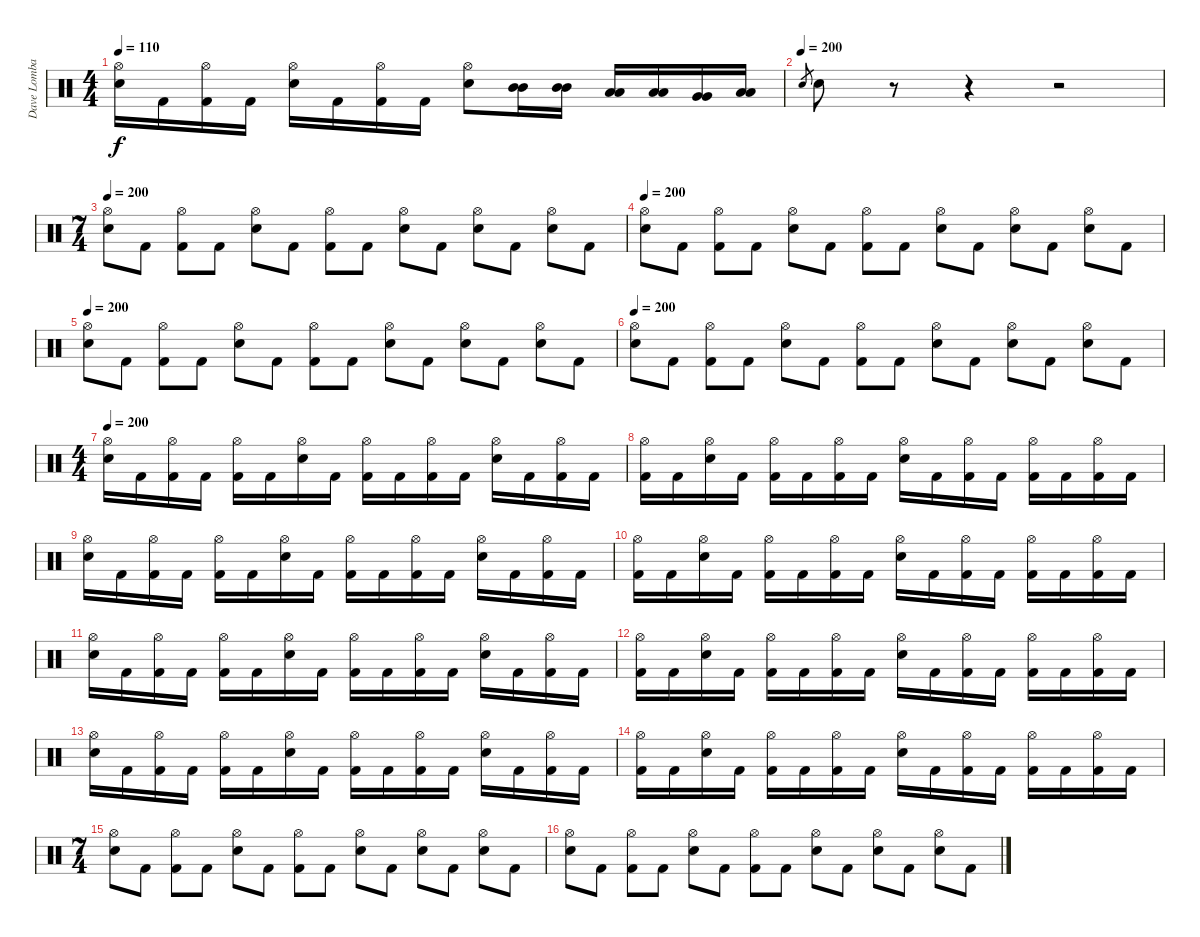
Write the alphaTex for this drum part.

\track ("Dave Lombardo:" "Dave Lomba") {instrument percussion}
\staff {score}
\articulation defaults
\ts (4 4)
\tempo 110
\clef neutral
\ks c
("Hi-Hat (open)" "Electric Snare (hit)").16{dy f} "Kick (hit) 2".16 ("Hi-Hat (open)" "Kick (hit) 2").16 "Kick (hit) 2".16 ("Hi-Hat (open)" "Electric Snare (hit)").16 "Kick (hit) 2".16 ("Hi-Hat (open)" "Kick (hit) 2").16 "Kick (hit) 2".16 ("Hi-Hat (open)" "Electric Snare (hit)").8 ("Mid Tom (hit)" "Mid Tom (hit)").16 ("Mid Tom (hit)" "Mid Tom (hit)").16 ("Low Tom (hit)" "Low Tom (hit)").16 ("Low Tom (hit)" "Low Tom (hit)").16 ("Very Low Tom (hit)" "Very Low Tom (hit)").16 ("Low Floor Tom (hit)" "Low Floor Tom (hit)").16 |
\tempo (200)
"Electric Snare (hit)".8{gr} "Electric Snare (hit)".8 r.8 r.4 r.2 |
\ts (7 4)
\tempo 200
("Hi-Hat (open)" "Electric Snare (hit)").8 "Kick (hit) 2".8 ("Hi-Hat (open)" "Kick (hit) 2").8 "Kick (hit) 2".8 ("Hi-Hat (open)" "Electric Snare (hit)").8 "Kick (hit) 2".8 ("Hi-Hat (open)" "Kick (hit) 2").8 "Kick (hit) 2".8 ("Hi-Hat (open)" "Electric Snare (hit)").8 "Kick (hit) 2".8 ("Hi-Hat (open)" "Electric Snare (hit)").8 "Kick (hit) 2".8 ("Hi-Hat (open)" "Electric Snare (hit)").8 "Kick (hit) 2".8 |
\tempo 200
("Hi-Hat (open)" "Electric Snare (hit)").8 "Kick (hit) 2".8 ("Hi-Hat (open)" "Kick (hit) 2").8 "Kick (hit) 2".8 ("Hi-Hat (open)" "Electric Snare (hit)").8 "Kick (hit) 2".8 ("Hi-Hat (open)" "Kick (hit) 2").8 "Kick (hit) 2".8 ("Hi-Hat (open)" "Electric Snare (hit)").8 "Kick (hit) 2".8 ("Hi-Hat (open)" "Electric Snare (hit)").8 "Kick (hit) 2".8 ("Hi-Hat (open)" "Electric Snare (hit)").8 "Kick (hit) 2".8 |
\tempo 200
("Hi-Hat (open)" "Electric Snare (hit)").8 "Kick (hit) 2".8 ("Hi-Hat (open)" "Kick (hit) 2").8 "Kick (hit) 2".8 ("Hi-Hat (open)" "Electric Snare (hit)").8 "Kick (hit) 2".8 ("Hi-Hat (open)" "Kick (hit) 2").8 "Kick (hit) 2".8 ("Hi-Hat (open)" "Electric Snare (hit)").8 "Kick (hit) 2".8 ("Hi-Hat (open)" "Electric Snare (hit)").8 "Kick (hit) 2".8 ("Hi-Hat (open)" "Electric Snare (hit)").8 "Kick (hit) 2".8 |
\tempo 200
("Hi-Hat (open)" "Electric Snare (hit)").8 "Kick (hit) 2".8 ("Hi-Hat (open)" "Kick (hit) 2").8 "Kick (hit) 2".8 ("Hi-Hat (open)" "Electric Snare (hit)").8 "Kick (hit) 2".8 ("Hi-Hat (open)" "Kick (hit) 2").8 "Kick (hit) 2".8 ("Hi-Hat (open)" "Electric Snare (hit)").8 "Kick (hit) 2".8 ("Hi-Hat (open)" "Electric Snare (hit)").8 "Kick (hit) 2".8 ("Hi-Hat (open)" "Electric Snare (hit)").8 "Kick (hit) 2".8 |
\ts (4 4)
\tempo 200
("Hi-Hat (open)" "Electric Snare (hit)").16 "Kick (hit) 2".16 ("Hi-Hat (open)" "Kick (hit) 2").16 "Kick (hit) 2".16 ("Hi-Hat (open)" "Kick (hit) 2").16 "Kick (hit) 2".16 ("Hi-Hat (open)" "Electric Snare (hit)").16 "Kick (hit) 2".16 ("Hi-Hat (open)" "Kick (hit) 2").16 "Kick (hit) 2".16 ("Hi-Hat (open)" "Kick (hit) 2").16 "Kick (hit) 2".16 ("Hi-Hat (open)" "Electric Snare (hit)").16 "Kick (hit) 2".16 ("Hi-Hat (open)" "Kick (hit) 2").16 "Kick (hit) 2".16 |
("Hi-Hat (open)" "Kick (hit) 2").16 "Kick (hit) 2".16 ("Hi-Hat (open)" "Electric Snare (hit)").16 "Kick (hit) 2".16 ("Hi-Hat (open)" "Kick (hit) 2").16 "Kick (hit) 2".16 ("Hi-Hat (open)" "Kick (hit) 2").16 "Kick (hit) 2".16 ("Hi-Hat (open)" "Electric Snare (hit)").16 "Kick (hit) 2".16 ("Hi-Hat (open)" "Kick (hit) 2").16 "Kick (hit) 2".16 ("Hi-Hat (open)" "Kick (hit) 2").16 "Kick (hit) 2".16 ("Hi-Hat (open)" "Kick (hit) 2").16 "Kick (hit) 2".16 |
("Hi-Hat (open)" "Electric Snare (hit)").16 "Kick (hit) 2".16 ("Hi-Hat (open)" "Kick (hit) 2").16 "Kick (hit) 2".16 ("Hi-Hat (open)" "Kick (hit) 2").16 "Kick (hit) 2".16 ("Hi-Hat (open)" "Electric Snare (hit)").16 "Kick (hit) 2".16 ("Hi-Hat (open)" "Kick (hit) 2").16 "Kick (hit) 2".16 ("Hi-Hat (open)" "Kick (hit) 2").16 "Kick (hit) 2".16 ("Hi-Hat (open)" "Electric Snare (hit)").16 "Kick (hit) 2".16 ("Hi-Hat (open)" "Kick (hit) 2").16 "Kick (hit) 2".16 |
("Hi-Hat (open)" "Kick (hit) 2").16 "Kick (hit) 2".16 ("Hi-Hat (open)" "Electric Snare (hit)").16 "Kick (hit) 2".16 ("Hi-Hat (open)" "Kick (hit) 2").16 "Kick (hit) 2".16 ("Hi-Hat (open)" "Kick (hit) 2").16 "Kick (hit) 2".16 ("Hi-Hat (open)" "Electric Snare (hit)").16 "Kick (hit) 2".16 ("Hi-Hat (open)" "Kick (hit) 2").16 "Kick (hit) 2".16 ("Hi-Hat (open)" "Kick (hit) 2").16 "Kick (hit) 2".16 ("Hi-Hat (open)" "Kick (hit) 2").16 "Kick (hit) 2".16 |
("Hi-Hat (open)" "Electric Snare (hit)").16 "Kick (hit) 2".16 ("Hi-Hat (open)" "Kick (hit) 2").16 "Kick (hit) 2".16 ("Hi-Hat (open)" "Kick (hit) 2").16 "Kick (hit) 2".16 ("Hi-Hat (open)" "Electric Snare (hit)").16 "Kick (hit) 2".16 ("Hi-Hat (open)" "Kick (hit) 2").16 "Kick (hit) 2".16 ("Hi-Hat (open)" "Kick (hit) 2").16 "Kick (hit) 2".16 ("Hi-Hat (open)" "Electric Snare (hit)").16 "Kick (hit) 2".16 ("Hi-Hat (open)" "Kick (hit) 2").16 "Kick (hit) 2".16 |
("Hi-Hat (open)" "Kick (hit) 2").16 "Kick (hit) 2".16 ("Hi-Hat (open)" "Electric Snare (hit)").16 "Kick (hit) 2".16 ("Hi-Hat (open)" "Kick (hit) 2").16 "Kick (hit) 2".16 ("Hi-Hat (open)" "Kick (hit) 2").16 "Kick (hit) 2".16 ("Hi-Hat (open)" "Electric Snare (hit)").16 "Kick (hit) 2".16 ("Hi-Hat (open)" "Kick (hit) 2").16 "Kick (hit) 2".16 ("Hi-Hat (open)" "Kick (hit) 2").16 "Kick (hit) 2".16 ("Hi-Hat (open)" "Kick (hit) 2").16 "Kick (hit) 2".16 |
("Hi-Hat (open)" "Electric Snare (hit)").16 "Kick (hit) 2".16 ("Hi-Hat (open)" "Kick (hit) 2").16 "Kick (hit) 2".16 ("Hi-Hat (open)" "Kick (hit) 2").16 "Kick (hit) 2".16 ("Hi-Hat (open)" "Electric Snare (hit)").16 "Kick (hit) 2".16 ("Hi-Hat (open)" "Kick (hit) 2").16 "Kick (hit) 2".16 ("Hi-Hat (open)" "Kick (hit) 2").16 "Kick (hit) 2".16 ("Hi-Hat (open)" "Electric Snare (hit)").16 "Kick (hit) 2".16 ("Hi-Hat (open)" "Kick (hit) 2").16 "Kick (hit) 2".16 |
("Hi-Hat (open)" "Kick (hit) 2").16 "Kick (hit) 2".16 ("Hi-Hat (open)" "Electric Snare (hit)").16 "Kick (hit) 2".16 ("Hi-Hat (open)" "Kick (hit) 2").16 "Kick (hit) 2".16 ("Hi-Hat (open)" "Kick (hit) 2").16 "Kick (hit) 2".16 ("Hi-Hat (open)" "Electric Snare (hit)").16 "Kick (hit) 2".16 ("Hi-Hat (open)" "Kick (hit) 2").16 "Kick (hit) 2".16 ("Hi-Hat (open)" "Kick (hit) 2").16 "Kick (hit) 2".16 ("Hi-Hat (open)" "Kick (hit) 2").16 "Kick (hit) 2".16 |
\ts (7 4)
("Hi-Hat (open)" "Electric Snare (hit)").8 "Kick (hit) 2".8 ("Hi-Hat (open)" "Kick (hit) 2").8 "Kick (hit) 2".8 ("Hi-Hat (open)" "Electric Snare (hit)").8 "Kick (hit) 2".8 ("Hi-Hat (open)" "Kick (hit) 2").8 "Kick (hit) 2".8 ("Hi-Hat (open)" "Electric Snare (hit)").8 "Kick (hit) 2".8 ("Hi-Hat (open)" "Electric Snare (hit)").8 "Kick (hit) 2".8 ("Hi-Hat (open)" "Electric Snare (hit)").8 "Kick (hit) 2".8 |
("Hi-Hat (open)" "Electric Snare (hit)").8 "Kick (hit) 2".8 ("Hi-Hat (open)" "Kick (hit) 2").8 "Kick (hit) 2".8 ("Hi-Hat (open)" "Electric Snare (hit)").8 "Kick (hit) 2".8 ("Hi-Hat (open)" "Kick (hit) 2").8 "Kick (hit) 2".8 ("Hi-Hat (open)" "Electric Snare (hit)").8 "Kick (hit) 2".8 ("Hi-Hat (open)" "Electric Snare (hit)").8 "Kick (hit) 2".8 ("Hi-Hat (open)" "Electric Snare (hit)").8 "Kick (hit) 2".8
